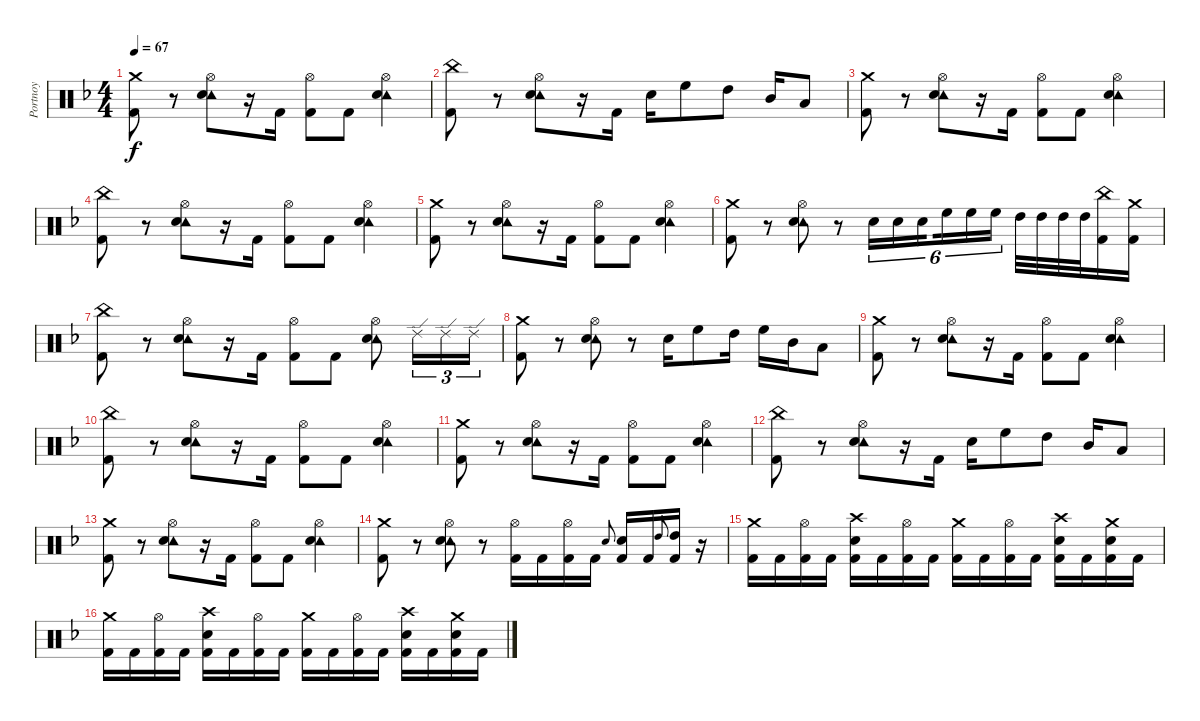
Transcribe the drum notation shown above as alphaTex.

\track ("Portnoy" "Portnoy") {instrument percussion}
\staff {score}
\articulation defaults
\ts (4 4)
\tempo 67
\clef neutral
\ks f
("Crash medium (hit)" "Kick (hit) 2").8{dy f} r.8 ("Hi-Hat (open)" "Tambourine (hit)" "Electric Snare (hit)").8 r.16 "Kick (hit) 2".16 ("Hi-Hat (open)" "Kick (hit) 2").8 "Kick (hit) 2".8 ("Hi-Hat (open)" "Tambourine (hit)" "Electric Snare (hit)").4 |
("China (hit)" "Kick (hit) 2").8 r.8 ("Hi-Hat (open)" "Tambourine (hit)" "Electric Snare (hit)").8 r.16 "Kick (hit) 2".16 "Electric Snare (hit)".16 "High Floor Tom (hit)".8 "High Tom (hit)".8 "Mid Tom (hit)".16 "Low Tom (hit)".8 |
("Crash medium (hit)" "Kick (hit) 2").8 r.8 ("Hi-Hat (open)" "Tambourine (hit)" "Electric Snare (hit)").8 r.16 "Kick (hit) 2".16 ("Hi-Hat (open)" "Kick (hit) 2").8 "Kick (hit) 2".8 ("Hi-Hat (open)" "Tambourine (hit)" "Electric Snare (hit)").4 |
("China (hit)" "Kick (hit) 2").8 r.8 ("Hi-Hat (open)" "Tambourine (hit)" "Electric Snare (hit)").8 r.16 "Kick (hit) 2".16 ("Hi-Hat (open)" "Kick (hit) 2").8 "Kick (hit) 2".8 ("Hi-Hat (open)" "Tambourine (hit)" "Electric Snare (hit)").4 |
("Crash medium (hit)" "Kick (hit) 2").8 r.8 ("Hi-Hat (open)" "Tambourine (hit)" "Electric Snare (hit)").8 r.16 "Kick (hit) 2".16 ("Hi-Hat (open)" "Kick (hit) 2").8 "Kick (hit) 2".8 ("Hi-Hat (open)" "Tambourine (hit)" "Electric Snare (hit)").4 |
("Crash medium (hit)" "Kick (hit) 2").8 r.8 ("Hi-Hat (open)" "Tambourine (hit)" "Electric Snare (hit)").8 r.8 "Electric Snare (hit)".16{tu (6 4)} "Electric Snare (hit)".16{tu (6 4)} "Electric Snare (hit)".16{tu (6 4) beam splitsecondary} "High Floor Tom (hit)".16{tu (6 4)} "High Floor Tom (hit)".16{tu (6 4)} "High Floor Tom (hit)".16{tu (6 4)} "High Tom (hit)".32 "High Tom (hit)".32 "High Tom (hit)".32 "High Tom (hit)".32 ("China (hit)" "Kick (hit) 2").16 ("Crash medium (hit)" "Kick (hit) 2").16 |
("China (hit)" "Kick (hit) 2").8 r.8 ("Hi-Hat (open)" "Tambourine (hit)" "Electric Snare (hit)").8 r.16 "Kick (hit) 2".16 ("Hi-Hat (open)" "Kick (hit) 2").8 "Kick (hit) 2".8 ("Hi-Hat (open)" "Tambourine (hit)" "Electric Snare (hit)").8 "Ride (edge) 2".16{tu (3 2)} "Ride (edge) 2".16{tu (3 2)} "Ride (edge) 2".16{tu (3 2)} |
("Crash medium (hit)" "Kick (hit) 2").8 r.8 ("Hi-Hat (open)" "Tambourine (hit)" "Electric Snare (hit)").8 r.8 "Electric Snare (hit)".16 "High Floor Tom (hit)".8 "High Tom (hit)".16 "High Floor Tom (hit)".16 "Mid Tom (hit)".16 "Low Tom (hit)".8 |
("Crash medium (hit)" "Kick (hit) 2").8 r.8 ("Hi-Hat (open)" "Tambourine (hit)" "Electric Snare (hit)").8 r.16 "Kick (hit) 2".16 ("Hi-Hat (open)" "Kick (hit) 2").8 "Kick (hit) 2".8 ("Hi-Hat (open)" "Tambourine (hit)" "Electric Snare (hit)").4 |
("China (hit)" "Kick (hit) 2").8 r.8 ("Hi-Hat (open)" "Tambourine (hit)" "Electric Snare (hit)").8 r.16 "Kick (hit) 2".16 ("Hi-Hat (open)" "Kick (hit) 2").8 "Kick (hit) 2".8 ("Hi-Hat (open)" "Tambourine (hit)" "Electric Snare (hit)").4 |
("Crash medium (hit)" "Kick (hit) 2").8 r.8 ("Hi-Hat (open)" "Tambourine (hit)" "Electric Snare (hit)").8 r.16 "Kick (hit) 2".16 ("Hi-Hat (open)" "Kick (hit) 2").8 "Kick (hit) 2".8 ("Hi-Hat (open)" "Tambourine (hit)" "Electric Snare (hit)").4 |
("China (hit)" "Kick (hit) 2").8 r.8 ("Hi-Hat (open)" "Tambourine (hit)" "Electric Snare (hit)").8 r.16 "Kick (hit) 2".16 "Electric Snare (hit)".16 "High Floor Tom (hit)".8 "High Tom (hit)".8 "Mid Tom (hit)".16 "Low Tom (hit)".8 |
("Crash medium (hit)" "Kick (hit) 2").8 r.8 ("Hi-Hat (open)" "Tambourine (hit)" "Electric Snare (hit)").8 r.16 "Kick (hit) 2".16 ("Hi-Hat (open)" "Kick (hit) 2").8 "Kick (hit) 2".8 ("Hi-Hat (open)" "Tambourine (hit)" "Electric Snare (hit)").4 |
("Crash medium (hit)" "Kick (hit) 2").8 r.8 ("Hi-Hat (open)" "Tambourine (hit)" "Electric Snare (hit)").8 r.8 ("Hi-Hat (open)" "Kick (hit) 2").16 "Kick (hit) 2".16 ("Hi-Hat (open)" "Kick (hit) 2").16 "Kick (hit) 2".16 "Electric Snare (hit)".8{gr onbeat} ("Electric Snare (hit)" "Kick (hit) 2").16 "Kick (hit) 2".16 "High Tom (hit)".8{gr onbeat} ("High Tom (hit)" "Kick (hit) 2").16 r.16 |
("Crash medium (hit)" "Kick (hit) 2").16 "Kick (hit) 2".16 ("Hi-Hat (open)" "Kick (hit) 2").16 "Kick (hit) 2".16 ("Crash high (hit)" "Electric Snare (hit)" "Kick (hit) 2").16 "Kick (hit) 2".16 ("Hi-Hat (open)" "Kick (hit) 2").16 "Kick (hit) 2".16 ("Crash medium (hit)" "Kick (hit) 2").16 "Kick (hit) 2".16 ("Hi-Hat (open)" "Kick (hit) 2").16 "Kick (hit) 2".16 ("Crash high (hit)" "Electric Snare (hit)" "Kick (hit) 2").16 "Kick (hit) 2".16 ("Crash medium (hit)" "Electric Snare (hit)" "Kick (hit) 2").16 "Kick (hit) 2".16 |
("Crash medium (hit)" "Kick (hit) 2").16 "Kick (hit) 2".16 ("Hi-Hat (open)" "Kick (hit) 2").16 "Kick (hit) 2".16 ("Crash high (hit)" "Electric Snare (hit)" "Kick (hit) 2").16 "Kick (hit) 2".16 ("Hi-Hat (open)" "Kick (hit) 2").16 "Kick (hit) 2".16 ("Crash medium (hit)" "Kick (hit) 2").16 "Kick (hit) 2".16 ("Hi-Hat (open)" "Kick (hit) 2").16 "Kick (hit) 2".16 ("Crash high (hit)" "Electric Snare (hit)" "Kick (hit) 2").16 "Kick (hit) 2".16 ("Crash medium (hit)" "Electric Snare (hit)" "Kick (hit) 2").16 "Kick (hit) 2".16
